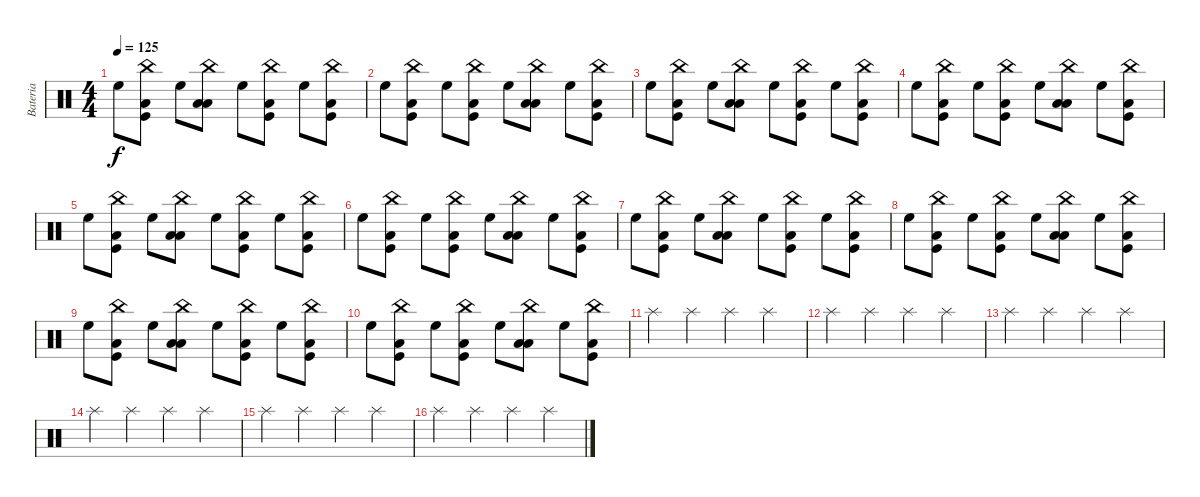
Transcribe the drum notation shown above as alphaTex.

\track ("Bateria" "Bateria") {instrument percussion}
\staff {score}
\articulation defaults
\ts (4 4)
\tempo 125
\clef neutral
\ks c "High Floor Tom (hit)".8{dy f}
("Low Tom (hit)" "Kick (hit)" "China (hit)").8 "High Floor Tom (hit)".8 ("Low Tom (hit)" "Low Tom (hit)" "China (hit)").8 "High Floor Tom (hit)".8 ("Low Tom (hit)" "Kick (hit)" "China (hit)").8 "High Floor Tom (hit)".8 ("Low Tom (hit)" "Kick (hit)" "China (hit)").8 |
"High Floor Tom (hit)".8 ("Low Tom (hit)" "Kick (hit)" "China (hit)").8 "High Floor Tom (hit)".8 ("Low Tom (hit)" "Kick (hit)" "China (hit)").8 "High Floor Tom (hit)".8 ("Low Tom (hit)" "Low Tom (hit)" "China (hit)").8 "High Floor Tom (hit)".8 ("Low Tom (hit)" "Kick (hit)" "China (hit)").8 |
"High Floor Tom (hit)".8 ("Low Tom (hit)" "Kick (hit)" "China (hit)").8 "High Floor Tom (hit)".8 ("Low Tom (hit)" "Low Tom (hit)" "China (hit)").8 "High Floor Tom (hit)".8 ("Low Tom (hit)" "Kick (hit)" "China (hit)").8 "High Floor Tom (hit)".8 ("Low Tom (hit)" "Kick (hit)" "China (hit)").8 |
"High Floor Tom (hit)".8 ("Low Tom (hit)" "Kick (hit)" "China (hit)").8 "High Floor Tom (hit)".8 ("Low Tom (hit)" "Kick (hit)" "China (hit)").8 "High Floor Tom (hit)".8 ("Low Tom (hit)" "Low Tom (hit)" "China (hit)").8 "High Floor Tom (hit)".8 ("Low Tom (hit)" "Kick (hit)" "China (hit)").8 |
"High Floor Tom (hit)".8 ("Low Tom (hit)" "Kick (hit)" "China (hit)").8 "High Floor Tom (hit)".8 ("Low Tom (hit)" "Low Tom (hit)" "China (hit)").8 "High Floor Tom (hit)".8 ("Low Tom (hit)" "Kick (hit)" "China (hit)").8 "High Floor Tom (hit)".8 ("Low Tom (hit)" "Kick (hit)" "China (hit)").8 |
"High Floor Tom (hit)".8 ("Low Tom (hit)" "Kick (hit)" "China (hit)").8 "High Floor Tom (hit)".8 ("Low Tom (hit)" "Kick (hit)" "China (hit)").8 "High Floor Tom (hit)".8 ("Low Tom (hit)" "Low Tom (hit)" "China (hit)").8 "High Floor Tom (hit)".8 ("Low Tom (hit)" "Kick (hit)" "China (hit)").8 |
"High Floor Tom (hit)".8 ("Low Tom (hit)" "Kick (hit)" "China (hit)").8 "High Floor Tom (hit)".8 ("Low Tom (hit)" "Low Tom (hit)" "China (hit)").8 "High Floor Tom (hit)".8 ("Low Tom (hit)" "Kick (hit)" "China (hit)").8 "High Floor Tom (hit)".8 ("Low Tom (hit)" "Kick (hit)" "China (hit)").8 |
"High Floor Tom (hit)".8 ("Low Tom (hit)" "Kick (hit)" "China (hit)").8 "High Floor Tom (hit)".8 ("Low Tom (hit)" "Kick (hit)" "China (hit)").8 "High Floor Tom (hit)".8 ("Low Tom (hit)" "Low Tom (hit)" "China (hit)").8 "High Floor Tom (hit)".8 ("Low Tom (hit)" "Kick (hit)" "China (hit)").8 |
"High Floor Tom (hit)".8 ("Low Tom (hit)" "Kick (hit)" "China (hit)").8 "High Floor Tom (hit)".8 ("Low Tom (hit)" "Low Tom (hit)" "China (hit)").8 "High Floor Tom (hit)".8 ("Low Tom (hit)" "Kick (hit)" "China (hit)").8 "High Floor Tom (hit)".8 ("Low Tom (hit)" "Kick (hit)" "China (hit)").8 |
"High Floor Tom (hit)".8 ("Low Tom (hit)" "Kick (hit)" "China (hit)").8 "High Floor Tom (hit)".8 ("Low Tom (hit)" "Kick (hit)" "China (hit)").8 "High Floor Tom (hit)".8 ("Low Tom (hit)" "Low Tom (hit)" "China (hit)").8 "High Floor Tom (hit)".8 ("Low Tom (hit)" "Kick (hit)" "China (hit)").8 |
"Splash (hit)".4 "Splash (hit)".4 "Splash (hit)".4 "Splash (hit)".4 |
"Splash (hit)".4 "Splash (hit)".4 "Splash (hit)".4 "Splash (hit)".4 |
"Splash (hit)".4 "Splash (hit)".4 "Splash (hit)".4 "Splash (hit)".4 |
"Splash (hit)".4 "Splash (hit)".4 "Splash (hit)".4 "Splash (hit)".4 |
"Splash (hit)".4 "Splash (hit)".4 "Splash (hit)".4 "Splash (hit)".4 |
"Splash (hit)".4 "Splash (hit)".4 "Splash (hit)".4 "Splash (hit)".4
